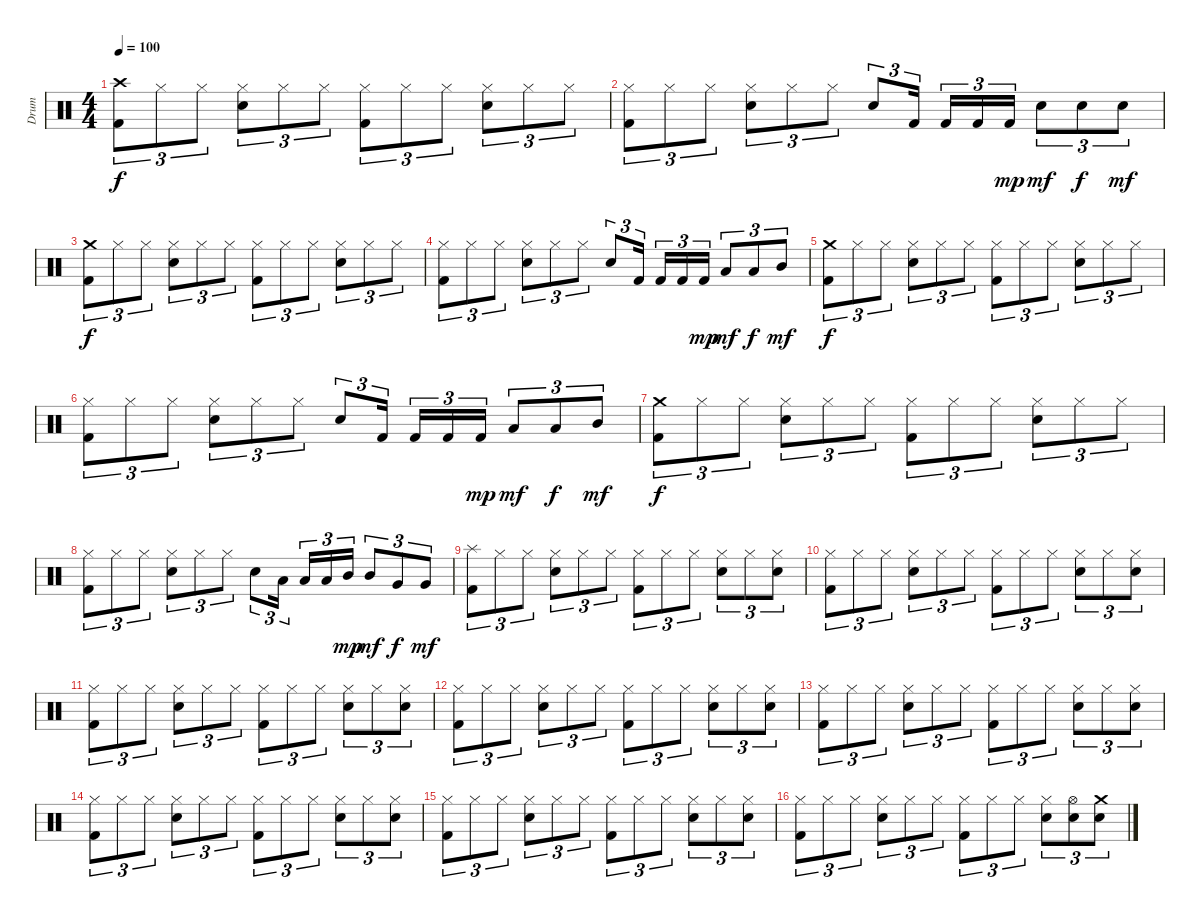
\track ("Drum" "Drum") {instrument percussion}
\staff {score}
\articulation defaults
\ts (4 4)
\tempo 100
\clef neutral
\ks c
("Crash high (hit)" "Kick (hit) 2").8{tu (3 2) dy f} "Hi-Hat (closed)".8{tu (3 2)} "Hi-Hat (closed)".8{tu (3 2)} ("Hi-Hat (closed)" "Electric Snare (hit)").8{tu (3 2)} "Hi-Hat (closed)".8{tu (3 2)} "Hi-Hat (closed)".8{tu (3 2)} ("Hi-Hat (closed)" "Kick (hit) 2").8{tu (3 2)} "Hi-Hat (closed)".8{tu (3 2)} "Hi-Hat (closed)".8{tu (3 2)} ("Hi-Hat (closed)" "Electric Snare (hit)").8{tu (3 2)} "Hi-Hat (closed)".8{tu (3 2)} "Hi-Hat (closed)".8{tu (3 2)} |
("Hi-Hat (closed)" "Kick (hit) 2").8{tu (3 2)} "Hi-Hat (closed)".8{tu (3 2)} "Hi-Hat (closed)".8{tu (3 2)} ("Hi-Hat (closed)" "Electric Snare (hit)").8{tu (3 2)} "Hi-Hat (closed)".8{tu (3 2)} "Hi-Hat (closed)".8{tu (3 2)} "Electric Snare (hit)".8{tu (3 2)} "Kick (hit) 2".16{tu (3 2)} "Kick (hit) 2".16{tu (3 2)} "Kick (hit) 2".16{tu (3 2)} "Kick (hit) 2".16{tu (3 2) dy mp} "Electric Snare (hit)".8{tu (3 2) dy mf} "Electric Snare (hit)".8{tu (3 2) dy f} "Electric Snare (hit)".8{tu (3 2) dy mf} |
("Crash medium (hit)" "Kick (hit) 2").8{tu (3 2) dy f} "Hi-Hat (closed)".8{tu (3 2)} "Hi-Hat (closed)".8{tu (3 2)} ("Hi-Hat (closed)" "Electric Snare (hit)").8{tu (3 2)} "Hi-Hat (closed)".8{tu (3 2)} "Hi-Hat (closed)".8{tu (3 2)} ("Hi-Hat (closed)" "Kick (hit) 2").8{tu (3 2)} "Hi-Hat (closed)".8{tu (3 2)} "Hi-Hat (closed)".8{tu (3 2)} ("Hi-Hat (closed)" "Electric Snare (hit)").8{tu (3 2)} "Hi-Hat (closed)".8{tu (3 2)} "Hi-Hat (closed)".8{tu (3 2)} |
("Hi-Hat (closed)" "Kick (hit) 2").8{tu (3 2)} "Hi-Hat (closed)".8{tu (3 2)} "Hi-Hat (closed)".8{tu (3 2)} ("Hi-Hat (closed)" "Electric Snare (hit)").8{tu (3 2)} "Hi-Hat (closed)".8{tu (3 2)} "Hi-Hat (closed)".8{tu (3 2)} "Electric Snare (hit)".8{tu (3 2)} "Kick (hit) 2".16{tu (3 2)} "Kick (hit) 2".16{tu (3 2)} "Kick (hit) 2".16{tu (3 2)} "Kick (hit) 2".16{tu (3 2) dy mp} "Low Tom (hit)".8{tu (3 2) dy mf} "Low Tom (hit)".8{tu (3 2) dy f} "Mid Tom (hit)".8{tu (3 2) dy mf} |
("Crash medium (hit)" "Kick (hit) 2").8{tu (3 2) dy f} "Hi-Hat (closed)".8{tu (3 2)} "Hi-Hat (closed)".8{tu (3 2)} ("Hi-Hat (closed)" "Electric Snare (hit)").8{tu (3 2)} "Hi-Hat (closed)".8{tu (3 2)} "Hi-Hat (closed)".8{tu (3 2)} ("Hi-Hat (closed)" "Kick (hit) 2").8{tu (3 2)} "Hi-Hat (closed)".8{tu (3 2)} "Hi-Hat (closed)".8{tu (3 2)} ("Hi-Hat (closed)" "Electric Snare (hit)").8{tu (3 2)} "Hi-Hat (closed)".8{tu (3 2)} "Hi-Hat (closed)".8{tu (3 2)} |
("Hi-Hat (closed)" "Kick (hit) 2").8{tu (3 2)} "Hi-Hat (closed)".8{tu (3 2)} "Hi-Hat (closed)".8{tu (3 2)} ("Hi-Hat (closed)" "Electric Snare (hit)").8{tu (3 2)} "Hi-Hat (closed)".8{tu (3 2)} "Hi-Hat (closed)".8{tu (3 2)} "Electric Snare (hit)".8{tu (3 2)} "Kick (hit) 2".16{tu (3 2)} "Kick (hit) 2".16{tu (3 2)} "Kick (hit) 2".16{tu (3 2)} "Kick (hit) 2".16{tu (3 2) dy mp} "Low Tom (hit)".8{tu (3 2) dy mf} "Low Tom (hit)".8{tu (3 2) dy f} "Mid Tom (hit)".8{tu (3 2) dy mf} |
("Crash medium (hit)" "Kick (hit) 2").8{tu (3 2) dy f} "Hi-Hat (closed)".8{tu (3 2)} "Hi-Hat (closed)".8{tu (3 2)} ("Hi-Hat (closed)" "Electric Snare (hit)").8{tu (3 2)} "Hi-Hat (closed)".8{tu (3 2)} "Hi-Hat (closed)".8{tu (3 2)} ("Hi-Hat (closed)" "Kick (hit) 2").8{tu (3 2)} "Hi-Hat (closed)".8{tu (3 2)} "Hi-Hat (closed)".8{tu (3 2)} ("Hi-Hat (closed)" "Electric Snare (hit)").8{tu (3 2)} "Hi-Hat (closed)".8{tu (3 2)} "Hi-Hat (closed)".8{tu (3 2)} |
("Hi-Hat (closed)" "Kick (hit) 2").8{tu (3 2)} "Hi-Hat (closed)".8{tu (3 2)} "Hi-Hat (closed)".8{tu (3 2)} ("Hi-Hat (closed)" "Electric Snare (hit)").8{tu (3 2)} "Hi-Hat (closed)".8{tu (3 2)} "Hi-Hat (closed)".8{tu (3 2)} "Electric Snare (hit)".8{tu (3 2)} "Low Tom (hit)".16{tu (3 2)} "Low Tom (hit)".16{tu (3 2)} "Low Tom (hit)".16{tu (3 2)} "Mid Tom (hit)".16{tu (3 2) dy mp} "Mid Tom (hit)".8{tu (3 2) dy mf} "Very Low Tom (hit)".8{tu (3 2) dy f} "Very Low Tom (hit)".8{tu (3 2) dy mf} |
("Splash (hit)" "Kick (hit) 2").8{tu (3 2)} "Hi-Hat (closed)".8{tu (3 2)} "Hi-Hat (closed)".8{tu (3 2)} ("Hi-Hat (closed)" "Electric Snare (hit)").8{tu (3 2)} "Hi-Hat (closed)".8{tu (3 2)} "Hi-Hat (closed)".8{tu (3 2)} ("Hi-Hat (closed)" "Kick (hit) 2").8{tu (3 2)} "Hi-Hat (closed)".8{tu (3 2)} "Hi-Hat (closed)".8{tu (3 2)} ("Hi-Hat (closed)" "Electric Snare (hit)").8{tu (3 2)} "Hi-Hat (closed)".8{tu (3 2)} ("Hi-Hat (closed)" "Electric Snare (hit)").8{tu (3 2)} |
("Hi-Hat (closed)" "Kick (hit) 2").8{tu (3 2)} "Hi-Hat (closed)".8{tu (3 2)} "Hi-Hat (closed)".8{tu (3 2)} ("Hi-Hat (closed)" "Electric Snare (hit)").8{tu (3 2)} "Hi-Hat (closed)".8{tu (3 2)} "Hi-Hat (closed)".8{tu (3 2)} ("Hi-Hat (closed)" "Kick (hit) 2").8{tu (3 2)} "Hi-Hat (closed)".8{tu (3 2)} "Hi-Hat (closed)".8{tu (3 2)} ("Hi-Hat (closed)" "Electric Snare (hit)").8{tu (3 2)} "Hi-Hat (closed)".8{tu (3 2)} ("Hi-Hat (closed)" "Electric Snare (hit)").8{tu (3 2)} |
("Hi-Hat (closed)" "Kick (hit) 2").8{tu (3 2)} "Hi-Hat (closed)".8{tu (3 2)} "Hi-Hat (closed)".8{tu (3 2)} ("Hi-Hat (closed)" "Electric Snare (hit)").8{tu (3 2)} "Hi-Hat (closed)".8{tu (3 2)} "Hi-Hat (closed)".8{tu (3 2)} ("Hi-Hat (closed)" "Kick (hit) 2").8{tu (3 2)} "Hi-Hat (closed)".8{tu (3 2)} "Hi-Hat (closed)".8{tu (3 2)} ("Hi-Hat (closed)" "Electric Snare (hit)").8{tu (3 2)} "Hi-Hat (closed)".8{tu (3 2)} ("Hi-Hat (closed)" "Electric Snare (hit)").8{tu (3 2)} |
("Hi-Hat (closed)" "Kick (hit) 2").8{tu (3 2)} "Hi-Hat (closed)".8{tu (3 2)} "Hi-Hat (closed)".8{tu (3 2)} ("Hi-Hat (closed)" "Electric Snare (hit)").8{tu (3 2)} "Hi-Hat (closed)".8{tu (3 2)} "Hi-Hat (closed)".8{tu (3 2)} ("Hi-Hat (closed)" "Kick (hit) 2").8{tu (3 2)} "Hi-Hat (closed)".8{tu (3 2)} "Hi-Hat (closed)".8{tu (3 2)} ("Hi-Hat (closed)" "Electric Snare (hit)").8{tu (3 2)} "Hi-Hat (closed)".8{tu (3 2)} ("Hi-Hat (closed)" "Electric Snare (hit)").8{tu (3 2)} |
("Hi-Hat (closed)" "Kick (hit) 2").8{tu (3 2)} "Hi-Hat (closed)".8{tu (3 2)} "Hi-Hat (closed)".8{tu (3 2)} ("Hi-Hat (closed)" "Electric Snare (hit)").8{tu (3 2)} "Hi-Hat (closed)".8{tu (3 2)} "Hi-Hat (closed)".8{tu (3 2)} ("Hi-Hat (closed)" "Kick (hit) 2").8{tu (3 2)} "Hi-Hat (closed)".8{tu (3 2)} "Hi-Hat (closed)".8{tu (3 2)} ("Hi-Hat (closed)" "Electric Snare (hit)").8{tu (3 2)} "Hi-Hat (closed)".8{tu (3 2)} ("Hi-Hat (closed)" "Electric Snare (hit)").8{tu (3 2)} |
("Hi-Hat (closed)" "Kick (hit) 2").8{tu (3 2)} "Hi-Hat (closed)".8{tu (3 2)} "Hi-Hat (closed)".8{tu (3 2)} ("Hi-Hat (closed)" "Electric Snare (hit)").8{tu (3 2)} "Hi-Hat (closed)".8{tu (3 2)} "Hi-Hat (closed)".8{tu (3 2)} ("Hi-Hat (closed)" "Kick (hit) 2").8{tu (3 2)} "Hi-Hat (closed)".8{tu (3 2)} "Hi-Hat (closed)".8{tu (3 2)} ("Hi-Hat (closed)" "Electric Snare (hit)").8{tu (3 2)} "Hi-Hat (closed)".8{tu (3 2)} ("Hi-Hat (closed)" "Electric Snare (hit)").8{tu (3 2)} |
("Hi-Hat (closed)" "Kick (hit) 2").8{tu (3 2)} "Hi-Hat (closed)".8{tu (3 2)} "Hi-Hat (closed)".8{tu (3 2)} ("Hi-Hat (closed)" "Electric Snare (hit)").8{tu (3 2)} "Hi-Hat (closed)".8{tu (3 2)} "Hi-Hat (closed)".8{tu (3 2)} ("Hi-Hat (closed)" "Kick (hit) 2").8{tu (3 2)} "Hi-Hat (closed)".8{tu (3 2)} "Hi-Hat (closed)".8{tu (3 2)} ("Hi-Hat (closed)" "Electric Snare (hit)").8{tu (3 2)} "Hi-Hat (closed)".8{tu (3 2)} ("Hi-Hat (closed)" "Electric Snare (hit)").8{tu (3 2)} |
("Hi-Hat (closed)" "Kick (hit) 2").8{tu (3 2)} "Hi-Hat (closed)".8{tu (3 2)} "Hi-Hat (closed)".8{tu (3 2)} ("Hi-Hat (closed)" "Electric Snare (hit)").8{tu (3 2)} "Hi-Hat (closed)".8{tu (3 2)} "Hi-Hat (closed)".8{tu (3 2)} ("Hi-Hat (closed)" "Kick (hit) 2").8{tu (3 2)} "Hi-Hat (closed)".8{tu (3 2)} "Hi-Hat (closed)".8{tu (3 2)} ("Hi-Hat (closed)" "Electric Snare (hit)").8{tu (3 2)} ("Hi-Hat (open)" "Electric Snare (hit)").8{tu (3 2)} ("Crash medium (hit)" "Electric Snare (hit)").8{tu (3 2)}
